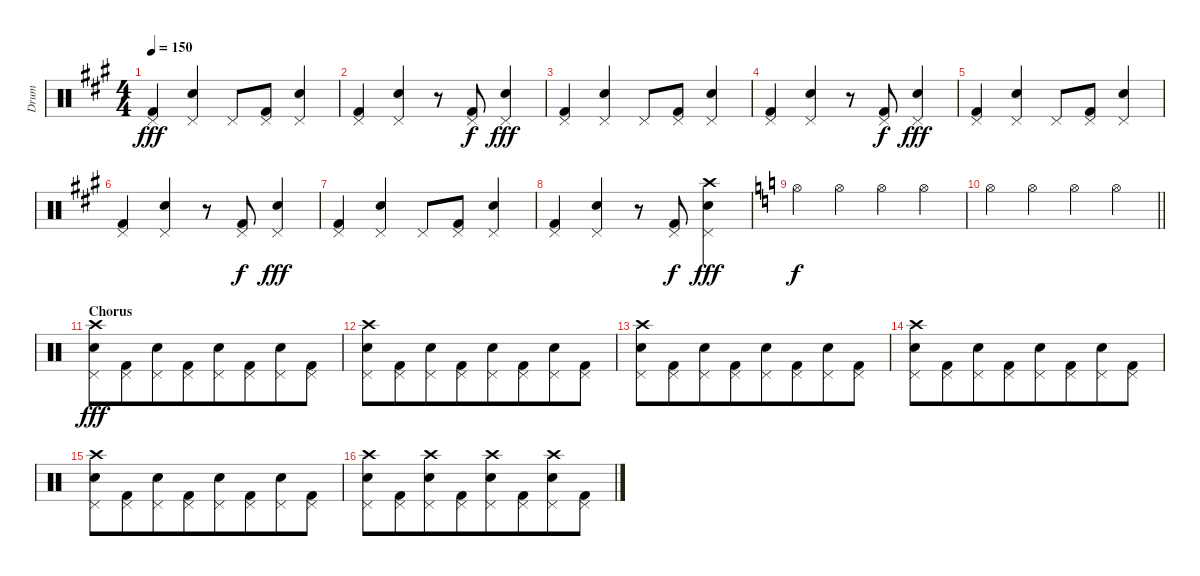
\track ("Drum" "Drum") {instrument percussion}
\staff {score}
\articulation defaults
\ts (4 4)
\tempo 150
\clef neutral
\ks a
("Pedal Hi-Hat (hit)" "Kick (hit) 2").4{dy fff} ("Pedal Hi-Hat (hit)" "Snare (hit) 2").4 "Pedal Hi-Hat (hit)".8 ("Pedal Hi-Hat (hit)" "Kick (hit) 2").8 ("Pedal Hi-Hat (hit)" "Snare (hit) 2").4 |
("Pedal Hi-Hat (hit)" "Kick (hit) 2").4 ("Pedal Hi-Hat (hit)" "Snare (hit) 2").4 r.8 ("Pedal Hi-Hat (hit)" "Kick (hit) 2").8{dy f} ("Pedal Hi-Hat (hit)" "Snare (hit) 2").4{dy fff} |
("Pedal Hi-Hat (hit)" "Kick (hit) 2").4 ("Pedal Hi-Hat (hit)" "Snare (hit) 2").4 "Pedal Hi-Hat (hit)".8 ("Pedal Hi-Hat (hit)" "Kick (hit) 2").8 ("Pedal Hi-Hat (hit)" "Snare (hit) 2").4 |
("Pedal Hi-Hat (hit)" "Kick (hit) 2").4 ("Pedal Hi-Hat (hit)" "Snare (hit) 2").4 r.8 ("Pedal Hi-Hat (hit)" "Kick (hit) 2").8{dy f} ("Pedal Hi-Hat (hit)" "Snare (hit) 2").4{dy fff} |
("Pedal Hi-Hat (hit)" "Kick (hit) 2").4 ("Pedal Hi-Hat (hit)" "Snare (hit) 2").4 "Pedal Hi-Hat (hit)".8 ("Pedal Hi-Hat (hit)" "Kick (hit) 2").8 ("Pedal Hi-Hat (hit)" "Snare (hit) 2").4 |
("Pedal Hi-Hat (hit)" "Kick (hit) 2").4 ("Pedal Hi-Hat (hit)" "Snare (hit) 2").4 r.8 ("Pedal Hi-Hat (hit)" "Kick (hit) 2").8{dy f} ("Pedal Hi-Hat (hit)" "Snare (hit) 2").4{dy fff} |
("Pedal Hi-Hat (hit)" "Kick (hit) 2").4 ("Pedal Hi-Hat (hit)" "Snare (hit) 2").4 "Pedal Hi-Hat (hit)".8 ("Pedal Hi-Hat (hit)" "Kick (hit) 2").8 ("Pedal Hi-Hat (hit)" "Snare (hit) 2").4 |
("Pedal Hi-Hat (hit)" "Kick (hit) 2").4 ("Pedal Hi-Hat (hit)" "Snare (hit) 2").4 r.8 ("Pedal Hi-Hat (hit)" "Kick (hit) 2").8{dy f} ("Crash high (hit)" "Pedal Hi-Hat (hit)" "Snare (hit) 2").4{dy fff} |
\ks c "Hi-Hat (open)".4{dy f} "Hi-Hat (open)".4 "Hi-Hat (open)".4 "Hi-Hat (open)".4
|
\barLineRight lightlight "Hi-Hat (open)".4 "Hi-Hat (open)".4 "Hi-Hat (open)".4 "Hi-Hat (open)".4
|
\section ("" "Chorus")
("Crash high (hit)" "Pedal Hi-Hat (hit)" "Snare (hit) 2").8{dy fff beam merge} ("Pedal Hi-Hat (hit)" "Kick (hit) 2").8{beam merge} ("Pedal Hi-Hat (hit)" "Snare (hit) 2").8{beam merge} ("Pedal Hi-Hat (hit)" "Kick (hit) 2").8{beam merge} ("Pedal Hi-Hat (hit)" "Snare (hit) 2").8{beam merge} ("Pedal Hi-Hat (hit)" "Kick (hit) 2").8{beam merge} ("Pedal Hi-Hat (hit)" "Snare (hit) 2").8{beam merge} ("Pedal Hi-Hat (hit)" "Kick (hit) 2").8 |
("Crash high (hit)" "Pedal Hi-Hat (hit)" "Snare (hit) 2").8{beam merge} ("Pedal Hi-Hat (hit)" "Kick (hit) 2").8{beam merge} ("Pedal Hi-Hat (hit)" "Snare (hit) 2").8{beam merge} ("Pedal Hi-Hat (hit)" "Kick (hit) 2").8{beam merge} ("Pedal Hi-Hat (hit)" "Snare (hit) 2").8{beam merge} ("Pedal Hi-Hat (hit)" "Kick (hit) 2").8{beam merge} ("Pedal Hi-Hat (hit)" "Snare (hit) 2").8{beam merge} ("Pedal Hi-Hat (hit)" "Kick (hit) 2").8 |
("Crash high (hit)" "Pedal Hi-Hat (hit)" "Snare (hit) 2").8{beam merge} ("Pedal Hi-Hat (hit)" "Kick (hit) 2").8{beam merge} ("Pedal Hi-Hat (hit)" "Snare (hit) 2").8{beam merge} ("Pedal Hi-Hat (hit)" "Kick (hit) 2").8{beam merge} ("Pedal Hi-Hat (hit)" "Snare (hit) 2").8{beam merge} ("Pedal Hi-Hat (hit)" "Kick (hit) 2").8{beam merge} ("Pedal Hi-Hat (hit)" "Snare (hit) 2").8{beam merge} ("Pedal Hi-Hat (hit)" "Kick (hit) 2").8 |
("Crash high (hit)" "Pedal Hi-Hat (hit)" "Snare (hit) 2").8{beam merge} ("Pedal Hi-Hat (hit)" "Kick (hit) 2").8{beam merge} ("Pedal Hi-Hat (hit)" "Snare (hit) 2").8{beam merge} ("Pedal Hi-Hat (hit)" "Kick (hit) 2").8{beam merge} ("Pedal Hi-Hat (hit)" "Snare (hit) 2").8{beam merge} ("Pedal Hi-Hat (hit)" "Kick (hit) 2").8{beam merge} ("Pedal Hi-Hat (hit)" "Snare (hit) 2").8{beam merge} ("Pedal Hi-Hat (hit)" "Kick (hit) 2").8 |
("Crash high (hit)" "Pedal Hi-Hat (hit)" "Snare (hit) 2").8{beam merge} ("Pedal Hi-Hat (hit)" "Kick (hit) 2").8{beam merge} ("Pedal Hi-Hat (hit)" "Snare (hit) 2").8{beam merge} ("Pedal Hi-Hat (hit)" "Kick (hit) 2").8{beam merge} ("Pedal Hi-Hat (hit)" "Snare (hit) 2").8{beam merge} ("Pedal Hi-Hat (hit)" "Kick (hit) 2").8{beam merge} ("Pedal Hi-Hat (hit)" "Snare (hit) 2").8{beam merge} ("Pedal Hi-Hat (hit)" "Kick (hit) 2").8 |
("Crash high (hit)" "Pedal Hi-Hat (hit)" "Snare (hit) 2").8{beam merge} ("Pedal Hi-Hat (hit)" "Kick (hit) 2").8{beam merge} ("Crash high (hit)" "Pedal Hi-Hat (hit)" "Snare (hit) 2").8{beam merge} ("Pedal Hi-Hat (hit)" "Kick (hit) 2").8{beam merge} ("Crash high (hit)" "Pedal Hi-Hat (hit)" "Snare (hit) 2").8{beam merge} ("Pedal Hi-Hat (hit)" "Kick (hit) 2").8{beam merge} ("Crash high (hit)" "Pedal Hi-Hat (hit)" "Snare (hit) 2").8{beam merge} ("Pedal Hi-Hat (hit)" "Kick (hit) 2").8
